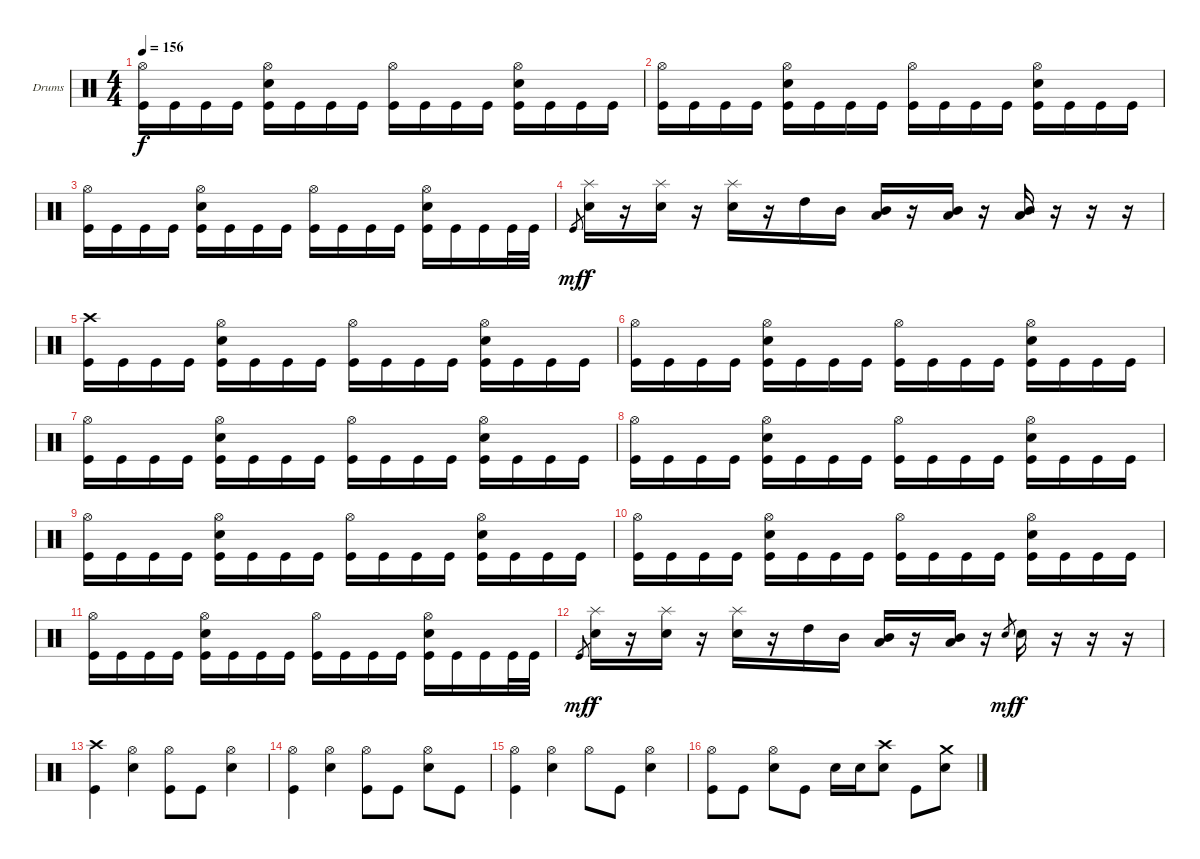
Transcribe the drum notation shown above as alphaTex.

\bracketExtendMode groupsimilarinstruments
\firstSystemTrackNameOrientation horizontal
\otherSystemsTrackNameOrientation horizontal
\track ("Drumkit" "Drums") {instrument percussion}
\staff {score}
\articulation defaults
\ts (4 4)
\tempo 156
\clef neutral
\ks c
("Hi-Hat (open)" "Kick (hit)").16{dy f} "Kick (hit)".16 "Kick (hit)".16 "Kick (hit)".16 ("Hi-Hat (open)" "Snare (hit) 2" "Kick (hit)").16 "Kick (hit)".16 "Kick (hit)".16 "Kick (hit)".16 ("Hi-Hat (open)" "Kick (hit)").16 "Kick (hit)".16 "Kick (hit)".16 "Kick (hit)".16 ("Hi-Hat (open)" "Snare (hit) 2" "Kick (hit)").16 "Kick (hit)".16 "Kick (hit)".16 "Kick (hit)".16 |
("Hi-Hat (open)" "Kick (hit)").16 "Kick (hit)".16 "Kick (hit)".16 "Kick (hit)".16 ("Hi-Hat (open)" "Snare (hit) 2" "Kick (hit)").16 "Kick (hit)".16 "Kick (hit)".16 "Kick (hit)".16 ("Hi-Hat (open)" "Kick (hit)").16 "Kick (hit)".16 "Kick (hit)".16 "Kick (hit)".16 ("Hi-Hat (open)" "Snare (hit) 2" "Kick (hit)").16 "Kick (hit)".16 "Kick (hit)".16 "Kick (hit)".16 |
("Hi-Hat (open)" "Kick (hit)").16 "Kick (hit)".16 "Kick (hit)".16 "Kick (hit)".16 ("Hi-Hat (open)" "Snare (hit) 2" "Kick (hit)").16 "Kick (hit)".16 "Kick (hit)".16 "Kick (hit)".16 ("Hi-Hat (open)" "Kick (hit)").16 "Kick (hit)".16 "Kick (hit)".16 "Kick (hit)".16 ("Hi-Hat (open)" "Snare (hit) 2" "Kick (hit)").16 "Kick (hit)".16 "Kick (hit)".16 "Kick (hit)".32 "Kick (hit)".32 |
"Kick (hit)".8{gr dy mf} ("Splash (hit)" "Snare (hit) 2").16{dy f} r.16 ("Splash (hit)" "Snare (hit) 2").16 r.16 ("Splash (hit)" "Snare (hit) 2").16 r.16 "High Tom (hit)".16 "Mid Tom (hit)".16 ("Mid Tom (hit)" "Low Tom (hit)").16 r.16 ("Mid Tom (hit)" "Low Tom (hit)").16 r.16 ("Mid Tom (hit)" "Low Tom (hit)").16 r.16 r.16 r.16 |
("Crash high (hit)" "Kick (hit)").16 "Kick (hit)".16 "Kick (hit)".16 "Kick (hit)".16 ("Hi-Hat (open)" "Snare (hit) 2" "Kick (hit)").16 "Kick (hit)".16 "Kick (hit)".16 "Kick (hit)".16 ("Hi-Hat (open)" "Kick (hit)").16 "Kick (hit)".16 "Kick (hit)".16 "Kick (hit)".16 ("Hi-Hat (open)" "Snare (hit) 2" "Kick (hit)").16 "Kick (hit)".16 "Kick (hit)".16 "Kick (hit)".16 |
("Hi-Hat (open)" "Kick (hit)").16 "Kick (hit)".16 "Kick (hit)".16 "Kick (hit)".16 ("Hi-Hat (open)" "Snare (hit) 2" "Kick (hit)").16 "Kick (hit)".16 "Kick (hit)".16 "Kick (hit)".16 ("Hi-Hat (open)" "Kick (hit)").16 "Kick (hit)".16 "Kick (hit)".16 "Kick (hit)".16 ("Hi-Hat (open)" "Snare (hit) 2" "Kick (hit)").16 "Kick (hit)".16 "Kick (hit)".16 "Kick (hit)".16 |
("Hi-Hat (open)" "Kick (hit)").16 "Kick (hit)".16 "Kick (hit)".16 "Kick (hit)".16 ("Hi-Hat (open)" "Snare (hit) 2" "Kick (hit)").16 "Kick (hit)".16 "Kick (hit)".16 "Kick (hit)".16 ("Hi-Hat (open)" "Kick (hit)").16 "Kick (hit)".16 "Kick (hit)".16 "Kick (hit)".16 ("Hi-Hat (open)" "Snare (hit) 2" "Kick (hit)").16 "Kick (hit)".16 "Kick (hit)".16 "Kick (hit)".16 |
("Hi-Hat (open)" "Kick (hit)").16 "Kick (hit)".16 "Kick (hit)".16 "Kick (hit)".16 ("Hi-Hat (open)" "Snare (hit) 2" "Kick (hit)").16 "Kick (hit)".16 "Kick (hit)".16 "Kick (hit)".16 ("Hi-Hat (open)" "Kick (hit)").16 "Kick (hit)".16 "Kick (hit)".16 "Kick (hit)".16 ("Hi-Hat (open)" "Snare (hit) 2" "Kick (hit)").16 "Kick (hit)".16 "Kick (hit)".16 "Kick (hit)".16 |
("Hi-Hat (open)" "Kick (hit)").16 "Kick (hit)".16 "Kick (hit)".16 "Kick (hit)".16 ("Hi-Hat (open)" "Snare (hit) 2" "Kick (hit)").16 "Kick (hit)".16 "Kick (hit)".16 "Kick (hit)".16 ("Hi-Hat (open)" "Kick (hit)").16 "Kick (hit)".16 "Kick (hit)".16 "Kick (hit)".16 ("Hi-Hat (open)" "Snare (hit) 2" "Kick (hit)").16 "Kick (hit)".16 "Kick (hit)".16 "Kick (hit)".16 |
("Hi-Hat (open)" "Kick (hit)").16 "Kick (hit)".16 "Kick (hit)".16 "Kick (hit)".16 ("Hi-Hat (open)" "Snare (hit) 2" "Kick (hit)").16 "Kick (hit)".16 "Kick (hit)".16 "Kick (hit)".16 ("Hi-Hat (open)" "Kick (hit)").16 "Kick (hit)".16 "Kick (hit)".16 "Kick (hit)".16 ("Hi-Hat (open)" "Snare (hit) 2" "Kick (hit)").16 "Kick (hit)".16 "Kick (hit)".16 "Kick (hit)".16 |
("Hi-Hat (open)" "Kick (hit)").16 "Kick (hit)".16 "Kick (hit)".16 "Kick (hit)".16 ("Hi-Hat (open)" "Snare (hit) 2" "Kick (hit)").16 "Kick (hit)".16 "Kick (hit)".16 "Kick (hit)".16 ("Hi-Hat (open)" "Kick (hit)").16 "Kick (hit)".16 "Kick (hit)".16 "Kick (hit)".16 ("Hi-Hat (open)" "Snare (hit) 2" "Kick (hit)").16 "Kick (hit)".16 "Kick (hit)".16 "Kick (hit)".32 "Kick (hit)".32 |
"Kick (hit)".8{gr dy mf} ("Splash (hit)" "Snare (hit) 2").16{dy f} r.16 ("Splash (hit)" "Snare (hit) 2").16 r.16 ("Splash (hit)" "Snare (hit) 2").16 r.16 "High Tom (hit)".16 "Mid Tom (hit)".16 ("Mid Tom (hit)" "Low Tom (hit)").16 r.16 ("Mid Tom (hit)" "Low Tom (hit)").16 r.16 "Snare (hit) 2".8{gr dy mf} "Snare (hit) 2".16{dy f} r.16 r.16 r.16 |
("Crash high (hit)" "Kick (hit)").4 ("Hi-Hat (open)" "Snare (hit) 2").4 ("Hi-Hat (open)" "Kick (hit)").8 "Kick (hit)".8 ("Hi-Hat (open)" "Snare (hit) 2").4 |
("Hi-Hat (open)" "Kick (hit)").4 ("Hi-Hat (open)" "Snare (hit) 2").4 ("Hi-Hat (open)" "Kick (hit)").8 "Kick (hit)".8 ("Hi-Hat (open)" "Snare (hit) 2").8 "Kick (hit)".8 |
("Hi-Hat (open)" "Kick (hit)").4 ("Hi-Hat (open)" "Snare (hit) 2").4 "Hi-Hat (open)".8 "Kick (hit)".8 ("Hi-Hat (open)" "Snare (hit) 2").4 |
("Hi-Hat (open)" "Kick (hit)").8 "Kick (hit)".8 ("Hi-Hat (open)" "Snare (hit) 2").8 "Kick (hit)".8 "Snare (hit) 2".16 "Snare (hit) 2".16 ("Crash high (hit)" "Snare (hit) 2").8 "Kick (hit)".8 ("Crash medium (hit)" "Snare (hit) 2").8
